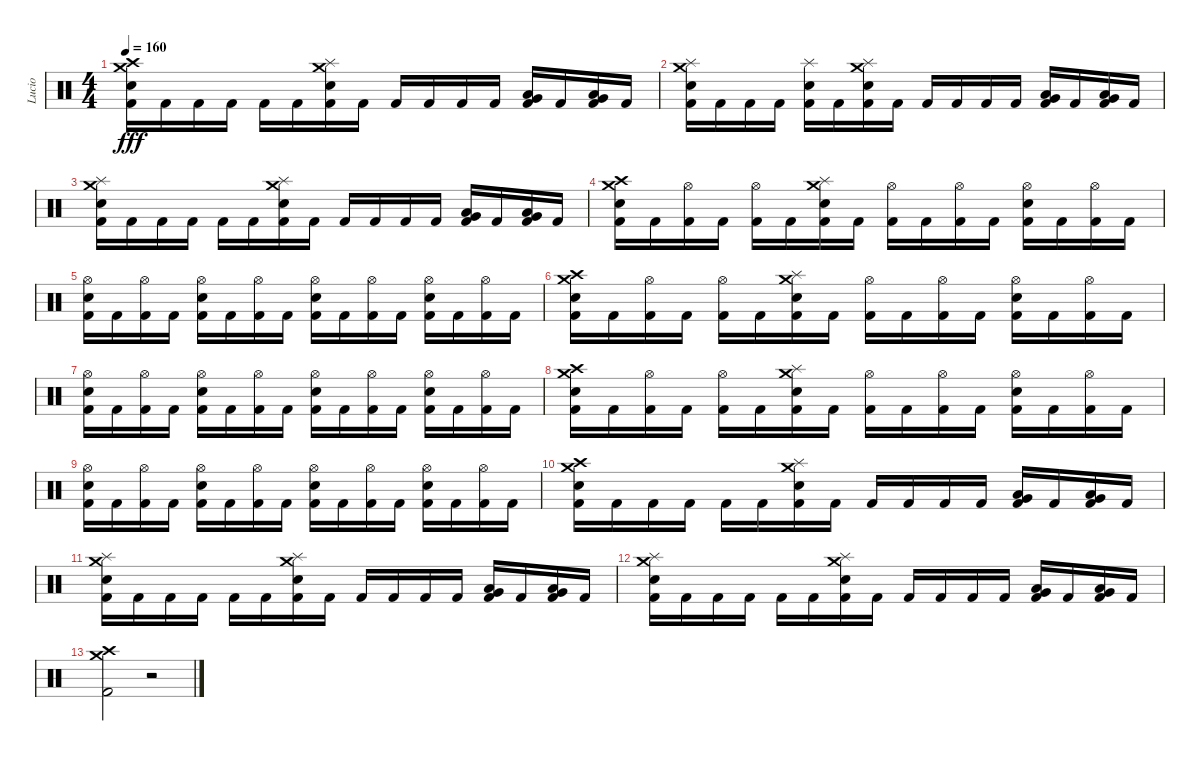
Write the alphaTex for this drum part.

\track ("Lucio" "Lucio") {instrument percussion}
\staff {score}
\articulation defaults
\ts (4 4)
\tempo 160
\clef neutral
\ks c
("Crash medium (hit)" "Crash high (hit)" "Electric Snare (hit)" "Kick (hit) 2").16{dy fff} "Kick (hit) 2".16 "Kick (hit) 2".16 "Kick (hit) 2".16 "Kick (hit) 2".16 "Kick (hit) 2".16 ("Crash medium (hit)" "Splash (hit)" "Electric Snare (hit)" "Kick (hit) 2").16 "Kick (hit) 2".16 "Kick (hit) 2".16 "Kick (hit) 2".16 "Kick (hit) 2".16 "Kick (hit) 2".16 ("Low Tom (hit)" "Very Low Tom (hit)" "Kick (hit) 2").16 "Kick (hit) 2".16 ("Low Tom (hit)" "Very Low Tom (hit)" "Kick (hit) 2").16 "Kick (hit) 2".16 |
("Crash medium (hit)" "Splash (hit)" "Electric Snare (hit)" "Kick (hit) 2").16 "Kick (hit) 2".16 "Kick (hit) 2".16 "Kick (hit) 2".16 ("Splash (hit)" "Electric Snare (hit)" "Kick (hit) 2").16 "Kick (hit) 2".16 ("Crash medium (hit)" "Splash (hit)" "Electric Snare (hit)" "Kick (hit) 2").16 "Kick (hit) 2".16 "Kick (hit) 2".16 "Kick (hit) 2".16 "Kick (hit) 2".16 "Kick (hit) 2".16 ("Low Tom (hit)" "Very Low Tom (hit)" "Kick (hit) 2").16 "Kick (hit) 2".16 ("Low Tom (hit)" "Very Low Tom (hit)" "Kick (hit) 2").16 "Kick (hit) 2".16 |
("Crash medium (hit)" "Splash (hit)" "Electric Snare (hit)" "Kick (hit) 2").16 "Kick (hit) 2".16 "Kick (hit) 2".16 "Kick (hit) 2".16 "Kick (hit) 2".16 "Kick (hit) 2".16 ("Crash medium (hit)" "Splash (hit)" "Electric Snare (hit)" "Kick (hit) 2").16 "Kick (hit) 2".16 "Kick (hit) 2".16 "Kick (hit) 2".16 "Kick (hit) 2".16 "Kick (hit) 2".16 ("Low Tom (hit)" "Very Low Tom (hit)" "Kick (hit) 2").16 "Kick (hit) 2".16 ("Low Tom (hit)" "Very Low Tom (hit)" "Kick (hit) 2").16 "Kick (hit) 2".16 |
("Crash medium (hit)" "Crash high (hit)" "Electric Snare (hit)" "Kick (hit) 2").16 "Kick (hit) 2".16 ("Hi-Hat (open)" "Kick (hit) 2").16 "Kick (hit) 2".16 ("Hi-Hat (open)" "Kick (hit) 2").16 "Kick (hit) 2".16 ("Crash medium (hit)" "Splash (hit)" "Electric Snare (hit)" "Kick (hit) 2").16 "Kick (hit) 2".16 ("Hi-Hat (open)" "Kick (hit) 2").16 "Kick (hit) 2".16 ("Hi-Hat (open)" "Kick (hit) 2").16 "Kick (hit) 2".16 ("Hi-Hat (open)" "Electric Snare (hit)" "Kick (hit) 2").16 "Kick (hit) 2".16 ("Hi-Hat (open)" "Kick (hit) 2").16 "Kick (hit) 2".16 |
("Hi-Hat (open)" "Electric Snare (hit)" "Kick (hit) 2").16 "Kick (hit) 2".16 ("Hi-Hat (open)" "Kick (hit) 2").16 "Kick (hit) 2".16 ("Hi-Hat (open)" "Electric Snare (hit)" "Kick (hit) 2").16 "Kick (hit) 2".16 ("Hi-Hat (open)" "Kick (hit) 2").16 "Kick (hit) 2".16 ("Hi-Hat (open)" "Electric Snare (hit)" "Kick (hit) 2").16 "Kick (hit) 2".16 ("Hi-Hat (open)" "Kick (hit) 2").16 "Kick (hit) 2".16 ("Hi-Hat (open)" "Electric Snare (hit)" "Kick (hit) 2").16 "Kick (hit) 2".16 ("Hi-Hat (open)" "Kick (hit) 2").16 "Kick (hit) 2".16 |
("Crash medium (hit)" "Crash high (hit)" "Electric Snare (hit)" "Kick (hit) 2").16 "Kick (hit) 2".16 ("Hi-Hat (open)" "Kick (hit) 2").16 "Kick (hit) 2".16 ("Hi-Hat (open)" "Kick (hit) 2").16 "Kick (hit) 2".16 ("Crash medium (hit)" "Splash (hit)" "Electric Snare (hit)" "Kick (hit) 2").16 "Kick (hit) 2".16 ("Hi-Hat (open)" "Kick (hit) 2").16 "Kick (hit) 2".16 ("Hi-Hat (open)" "Kick (hit) 2").16 "Kick (hit) 2".16 ("Hi-Hat (open)" "Electric Snare (hit)" "Kick (hit) 2").16 "Kick (hit) 2".16 ("Hi-Hat (open)" "Kick (hit) 2").16 "Kick (hit) 2".16 |
("Hi-Hat (open)" "Electric Snare (hit)" "Kick (hit) 2").16 "Kick (hit) 2".16 ("Hi-Hat (open)" "Kick (hit) 2").16 "Kick (hit) 2".16 ("Hi-Hat (open)" "Electric Snare (hit)" "Kick (hit) 2").16 "Kick (hit) 2".16 ("Hi-Hat (open)" "Kick (hit) 2").16 "Kick (hit) 2".16 ("Hi-Hat (open)" "Electric Snare (hit)" "Kick (hit) 2").16 "Kick (hit) 2".16 ("Hi-Hat (open)" "Kick (hit) 2").16 "Kick (hit) 2".16 ("Hi-Hat (open)" "Electric Snare (hit)" "Kick (hit) 2").16 "Kick (hit) 2".16 ("Hi-Hat (open)" "Kick (hit) 2").16 "Kick (hit) 2".16 |
("Crash medium (hit)" "Crash high (hit)" "Electric Snare (hit)" "Kick (hit) 2").16 "Kick (hit) 2".16 ("Hi-Hat (open)" "Kick (hit) 2").16 "Kick (hit) 2".16 ("Hi-Hat (open)" "Kick (hit) 2").16 "Kick (hit) 2".16 ("Crash medium (hit)" "Splash (hit)" "Electric Snare (hit)" "Kick (hit) 2").16 "Kick (hit) 2".16 ("Hi-Hat (open)" "Kick (hit) 2").16 "Kick (hit) 2".16 ("Hi-Hat (open)" "Kick (hit) 2").16 "Kick (hit) 2".16 ("Hi-Hat (open)" "Electric Snare (hit)" "Kick (hit) 2").16 "Kick (hit) 2".16 ("Hi-Hat (open)" "Kick (hit) 2").16 "Kick (hit) 2".16 |
("Hi-Hat (open)" "Electric Snare (hit)" "Kick (hit) 2").16 "Kick (hit) 2".16 ("Hi-Hat (open)" "Kick (hit) 2").16 "Kick (hit) 2".16 ("Hi-Hat (open)" "Electric Snare (hit)" "Kick (hit) 2").16 "Kick (hit) 2".16 ("Hi-Hat (open)" "Kick (hit) 2").16 "Kick (hit) 2".16 ("Hi-Hat (open)" "Electric Snare (hit)" "Kick (hit) 2").16 "Kick (hit) 2".16 ("Hi-Hat (open)" "Kick (hit) 2").16 "Kick (hit) 2".16 ("Hi-Hat (open)" "Electric Snare (hit)" "Kick (hit) 2").16 "Kick (hit) 2".16 ("Hi-Hat (open)" "Kick (hit) 2").16 "Kick (hit) 2".16 |
("Crash medium (hit)" "Crash high (hit)" "Electric Snare (hit)" "Kick (hit) 2").16 "Kick (hit) 2".16 "Kick (hit) 2".16 "Kick (hit) 2".16 "Kick (hit) 2".16 "Kick (hit) 2".16 ("Crash medium (hit)" "Splash (hit)" "Electric Snare (hit)" "Kick (hit) 2").16 "Kick (hit) 2".16 "Kick (hit) 2".16 "Kick (hit) 2".16 "Kick (hit) 2".16 "Kick (hit) 2".16 ("Low Tom (hit)" "Very Low Tom (hit)" "Kick (hit) 2").16 "Kick (hit) 2".16 ("Low Tom (hit)" "Very Low Tom (hit)" "Kick (hit) 2").16 "Kick (hit) 2".16 |
("Crash medium (hit)" "Splash (hit)" "Electric Snare (hit)" "Kick (hit) 2").16 "Kick (hit) 2".16 "Kick (hit) 2".16 "Kick (hit) 2".16 "Kick (hit) 2".16 "Kick (hit) 2".16 ("Crash medium (hit)" "Splash (hit)" "Electric Snare (hit)" "Kick (hit) 2").16 "Kick (hit) 2".16 "Kick (hit) 2".16 "Kick (hit) 2".16 "Kick (hit) 2".16 "Kick (hit) 2".16 ("Low Tom (hit)" "Very Low Tom (hit)" "Kick (hit) 2").16 "Kick (hit) 2".16 ("Low Tom (hit)" "Very Low Tom (hit)" "Kick (hit) 2").16 "Kick (hit) 2".16 |
("Crash medium (hit)" "Splash (hit)" "Electric Snare (hit)" "Kick (hit) 2").16 "Kick (hit) 2".16 "Kick (hit) 2".16 "Kick (hit) 2".16 "Kick (hit) 2".16 "Kick (hit) 2".16 ("Crash medium (hit)" "Splash (hit)" "Electric Snare (hit)" "Kick (hit) 2").16 "Kick (hit) 2".16 "Kick (hit) 2".16 "Kick (hit) 2".16 "Kick (hit) 2".16 "Kick (hit) 2".16 ("Low Tom (hit)" "Very Low Tom (hit)" "Kick (hit) 2").16 "Kick (hit) 2".16 ("Low Tom (hit)" "Very Low Tom (hit)" "Kick (hit) 2").16 "Kick (hit) 2".16 |
("Crash medium (hit)" "Crash high (hit)" "Kick (hit) 2").2 r.2{volume 0}
